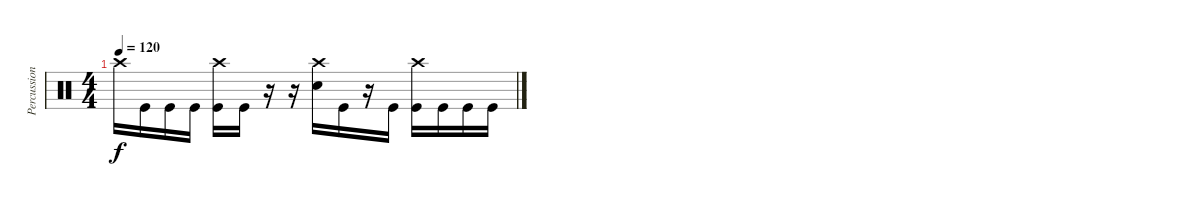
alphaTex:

\track ("Percussion" "Percussion") {instrument percussion}
\staff {score}
\articulation defaults
\ts (4 4)
\tempo 120
\clef neutral
\ks c "Crash high (hit)".16{dy f} "Kick (hit)".16 "Kick (hit)".16 "Kick (hit)".16
("Crash high (hit)" "Kick (hit)").16 "Kick (hit)".16 r.16 r.16 ("Crash high (hit)" "Snare (hit) 2").16 "Kick (hit)".16 r.16 "Kick (hit)".16 ("Crash high (hit)" "Kick (hit)").16 "Kick (hit)".16 "Kick (hit)".16 "Kick (hit)".16
